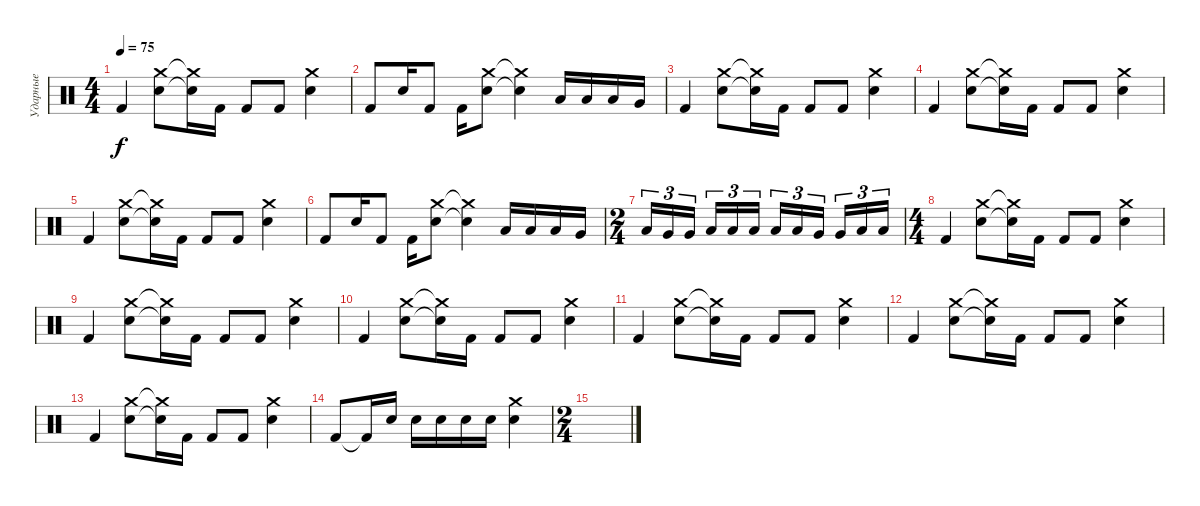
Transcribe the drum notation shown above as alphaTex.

\track ("Ударные" "Ударные") {instrument percussion}
\staff {score}
\articulation defaults
\ts (4 4)
\tempo 75
\clef neutral
\ks c "Kick (hit) 2".4{dy f}
("Electric Snare (hit)" "Crash medium (hit)").8 ("Electric Snare (hit)"{t} "Crash medium (hit)"{t}).16 "Kick (hit) 2".16 "Kick (hit) 2".8 "Kick (hit) 2".8 ("Electric Snare (hit)" "Crash medium (hit)").4 |
"Kick (hit) 2".8 "Electric Snare (hit)".16 "Kick (hit) 2".8 "Kick (hit) 2".16 ("Electric Snare (hit)" "Crash medium (hit)").8 ("Electric Snare (hit)"{t} "Crash medium (hit)"{t}).4 "Low Tom (hit)".16 "Low Tom (hit)".16 "Low Tom (hit)".16 "Very Low Tom (hit)".16 |
"Kick (hit) 2".4 ("Electric Snare (hit)" "Crash medium (hit)").8 ("Electric Snare (hit)"{t} "Crash medium (hit)"{t}).16 "Kick (hit) 2".16 "Kick (hit) 2".8 "Kick (hit) 2".8 ("Electric Snare (hit)" "Crash medium (hit)").4 |
"Kick (hit) 2".4 ("Electric Snare (hit)" "Crash medium (hit)").8 ("Electric Snare (hit)"{t} "Crash medium (hit)"{t}).16 "Kick (hit) 2".16 "Kick (hit) 2".8 "Kick (hit) 2".8 ("Electric Snare (hit)" "Crash medium (hit)").4 |
"Kick (hit) 2".4 ("Electric Snare (hit)" "Crash medium (hit)").8 ("Electric Snare (hit)"{t} "Crash medium (hit)"{t}).16 "Kick (hit) 2".16 "Kick (hit) 2".8 "Kick (hit) 2".8 ("Electric Snare (hit)" "Crash medium (hit)").4 |
"Kick (hit) 2".8 "Electric Snare (hit)".16 "Kick (hit) 2".8 "Kick (hit) 2".16 ("Electric Snare (hit)" "Crash medium (hit)").8 ("Electric Snare (hit)"{t} "Crash medium (hit)"{t}).4 "Low Tom (hit)".16 "Low Tom (hit)".16 "Low Tom (hit)".16 "Very Low Tom (hit)".16 |
\ts (2 4)
"Low Tom (hit)".16{tu (3 2)} "Very Low Tom (hit)".16{tu (3 2)} "Very Low Tom (hit)".16{tu (3 2)} "Low Floor Tom (hit)".16{tu (3 2)} "Low Floor Tom (hit)".16{tu (3 2)} "Low Floor Tom (hit)".16{tu (3 2)} "Low Floor Tom (hit)".16{tu (3 2)} "Low Tom (hit)".16{tu (3 2)} "Very Low Tom (hit)".16{tu (3 2)} "Very Low Tom (hit)".16{tu (3 2)} "Low Floor Tom (hit)".16{tu (3 2)} "Low Floor Tom (hit)".16{tu (3 2)} |
\ts (4 4)
"Kick (hit) 2".4 ("Electric Snare (hit)" "Crash medium (hit)").8 ("Electric Snare (hit)"{t} "Crash medium (hit)"{t}).16 "Kick (hit) 2".16 "Kick (hit) 2".8 "Kick (hit) 2".8 ("Electric Snare (hit)" "Crash medium (hit)").4 |
"Kick (hit) 2".4 ("Electric Snare (hit)" "Crash medium (hit)").8 ("Electric Snare (hit)"{t} "Crash medium (hit)"{t}).16 "Kick (hit) 2".16 "Kick (hit) 2".8 "Kick (hit) 2".8 ("Electric Snare (hit)" "Crash medium (hit)").4 |
"Kick (hit) 2".4 ("Electric Snare (hit)" "Crash medium (hit)").8 ("Electric Snare (hit)"{t} "Crash medium (hit)"{t}).16 "Kick (hit) 2".16 "Kick (hit) 2".8 "Kick (hit) 2".8 ("Electric Snare (hit)" "Crash medium (hit)").4 |
"Kick (hit) 2".4 ("Electric Snare (hit)" "Crash medium (hit)").8 ("Electric Snare (hit)"{t} "Crash medium (hit)"{t}).16 "Kick (hit) 2".16 "Kick (hit) 2".8 "Kick (hit) 2".8 ("Electric Snare (hit)" "Crash medium (hit)").4 |
"Kick (hit) 2".4 ("Electric Snare (hit)" "Crash medium (hit)").8 ("Electric Snare (hit)"{t} "Crash medium (hit)"{t}).16 "Kick (hit) 2".16 "Kick (hit) 2".8 "Kick (hit) 2".8 ("Electric Snare (hit)" "Crash medium (hit)").4 |
"Kick (hit) 2".4 ("Electric Snare (hit)" "Crash medium (hit)").8 ("Electric Snare (hit)"{t} "Crash medium (hit)"{t}).16 "Kick (hit) 2".16 "Kick (hit) 2".8 "Kick (hit) 2".8 ("Electric Snare (hit)" "Crash medium (hit)").4 |
"Kick (hit) 2".8 "Kick (hit) 2"{t}.16 "Electric Snare (hit)".16 "Electric Snare (hit)".16 "Electric Snare (hit)".16 "Electric Snare (hit)".16 "Electric Snare (hit)".16 ("Electric Snare (hit)" "Crash medium (hit)").4 |
\ts (2 4)
